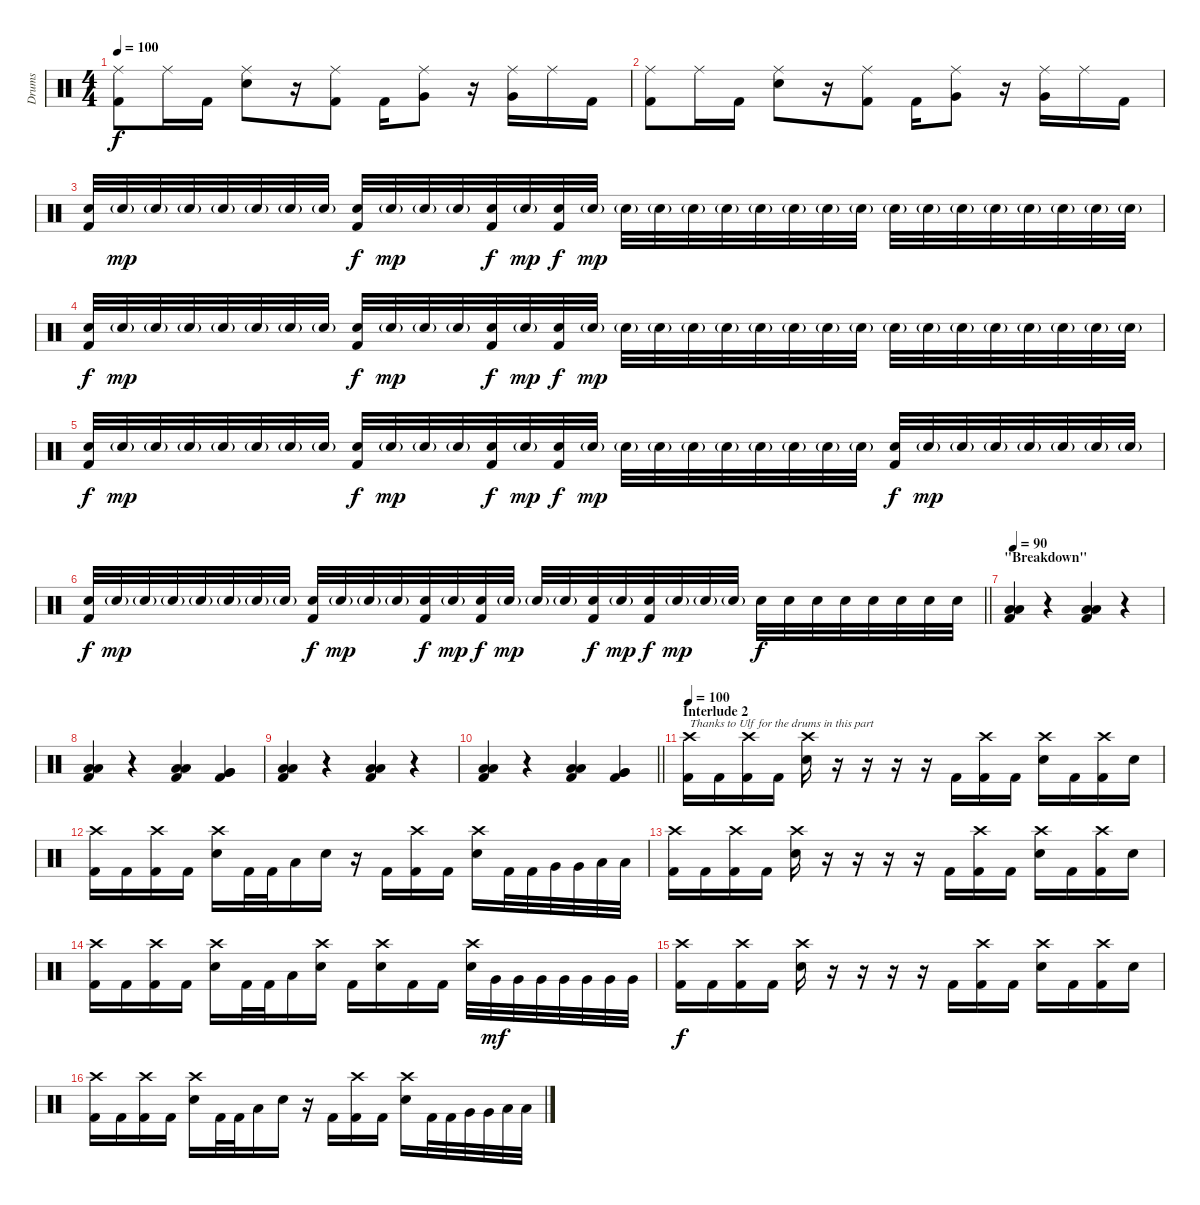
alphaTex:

\track ("Drums" "Drums") {instrument percussion}
\staff {score}
\articulation defaults
\ts (4 4)
\tempo 100
\clef neutral
\ks c
("Ride (middle)" "Kick (hit) 2").8{dy f} "Ride (middle)".16 "Kick (hit) 2".16 ("Ride (middle)" "Electric Snare (hit)").8 r.16 ("Ride (middle)" "Kick (hit) 2").8 "Kick (hit) 2".16 ("Ride (middle)" "Very Low Tom (hit)").8 r.16 ("Ride (middle)" "Very Low Tom (hit)").16 "Ride (middle)".16 "Kick (hit) 2".16 |
("Ride (middle)" "Kick (hit) 2").8 "Ride (middle)".16 "Kick (hit) 2".16 ("Ride (middle)" "Electric Snare (hit)").8 r.16 ("Ride (middle)" "Kick (hit) 2").8 "Kick (hit) 2".16 ("Ride (middle)" "Very Low Tom (hit)").8 r.16 ("Ride (middle)" "Very Low Tom (hit)").16 "Ride (middle)".16 "Kick (hit) 2".16 |
("Electric Snare (hit)" "Kick (hit) 2").32 "Electric Snare (hit)"{g}.32{dy mp} "Electric Snare (hit)"{g}.32 "Electric Snare (hit)"{g}.32 "Electric Snare (hit)"{g}.32 "Electric Snare (hit)"{g}.32 "Electric Snare (hit)"{g}.32 "Electric Snare (hit)"{g}.32 ("Electric Snare (hit)" "Kick (hit) 2").32{dy f} "Electric Snare (hit)"{g}.32{dy mp} "Electric Snare (hit)"{g}.32 "Electric Snare (hit)"{g}.32 ("Electric Snare (hit)" "Kick (hit) 2").32{dy f} "Electric Snare (hit)"{g}.32{dy mp} ("Electric Snare (hit)" "Kick (hit) 2").32{dy f} "Electric Snare (hit)"{g}.32{dy mp} "Electric Snare (hit)"{g}.32 "Electric Snare (hit)"{g}.32 "Electric Snare (hit)"{g}.32 "Electric Snare (hit)"{g}.32 "Electric Snare (hit)"{g}.32 "Electric Snare (hit)"{g}.32 "Electric Snare (hit)"{g}.32 "Electric Snare (hit)"{g}.32 "Electric Snare (hit)"{g}.32 "Electric Snare (hit)"{g}.32 "Electric Snare (hit)"{g}.32 "Electric Snare (hit)"{g}.32 "Electric Snare (hit)"{g}.32 "Electric Snare (hit)"{g}.32 "Electric Snare (hit)"{g}.32 "Electric Snare (hit)"{g}.32 |
("Electric Snare (hit)" "Kick (hit) 2").32{dy f} "Electric Snare (hit)"{g}.32{dy mp} "Electric Snare (hit)"{g}.32 "Electric Snare (hit)"{g}.32 "Electric Snare (hit)"{g}.32 "Electric Snare (hit)"{g}.32 "Electric Snare (hit)"{g}.32 "Electric Snare (hit)"{g}.32 ("Electric Snare (hit)" "Kick (hit) 2").32{dy f} "Electric Snare (hit)"{g}.32{dy mp} "Electric Snare (hit)"{g}.32 "Electric Snare (hit)"{g}.32 ("Electric Snare (hit)" "Kick (hit) 2").32{dy f} "Electric Snare (hit)"{g}.32{dy mp} ("Electric Snare (hit)" "Kick (hit) 2").32{dy f} "Electric Snare (hit)"{g}.32{dy mp} "Electric Snare (hit)"{g}.32 "Electric Snare (hit)"{g}.32 "Electric Snare (hit)"{g}.32 "Electric Snare (hit)"{g}.32 "Electric Snare (hit)"{g}.32 "Electric Snare (hit)"{g}.32 "Electric Snare (hit)"{g}.32 "Electric Snare (hit)"{g}.32 "Electric Snare (hit)"{g}.32 "Electric Snare (hit)"{g}.32 "Electric Snare (hit)"{g}.32 "Electric Snare (hit)"{g}.32 "Electric Snare (hit)"{g}.32 "Electric Snare (hit)"{g}.32 "Electric Snare (hit)"{g}.32 "Electric Snare (hit)"{g}.32 |
("Electric Snare (hit)" "Kick (hit) 2").32{dy f} "Electric Snare (hit)"{g}.32{dy mp} "Electric Snare (hit)"{g}.32 "Electric Snare (hit)"{g}.32 "Electric Snare (hit)"{g}.32 "Electric Snare (hit)"{g}.32 "Electric Snare (hit)"{g}.32 "Electric Snare (hit)"{g}.32 ("Electric Snare (hit)" "Kick (hit) 2").32{dy f} "Electric Snare (hit)"{g}.32{dy mp} "Electric Snare (hit)"{g}.32 "Electric Snare (hit)"{g}.32 ("Electric Snare (hit)" "Kick (hit) 2").32{dy f} "Electric Snare (hit)"{g}.32{dy mp} ("Electric Snare (hit)" "Kick (hit) 2").32{dy f} "Electric Snare (hit)"{g}.32{dy mp} "Electric Snare (hit)"{g}.32 "Electric Snare (hit)"{g}.32 "Electric Snare (hit)"{g}.32 "Electric Snare (hit)"{g}.32 "Electric Snare (hit)"{g}.32 "Electric Snare (hit)"{g}.32 "Electric Snare (hit)"{g}.32 "Electric Snare (hit)"{g}.32 ("Electric Snare (hit)" "Kick (hit) 2").32{dy f} "Electric Snare (hit)"{g}.32{dy mp} "Electric Snare (hit)"{g}.32 "Electric Snare (hit)"{g}.32 "Electric Snare (hit)"{g}.32 "Electric Snare (hit)"{g}.32 "Electric Snare (hit)"{g}.32 "Electric Snare (hit)"{g}.32 |
\barLineRight lightlight
("Electric Snare (hit)" "Kick (hit) 2").32{dy f} "Electric Snare (hit)"{g}.32{dy mp} "Electric Snare (hit)"{g}.32 "Electric Snare (hit)"{g}.32 "Electric Snare (hit)"{g}.32 "Electric Snare (hit)"{g}.32 "Electric Snare (hit)"{g}.32 "Electric Snare (hit)"{g}.32 ("Electric Snare (hit)" "Kick (hit) 2").32{dy f} "Electric Snare (hit)"{g}.32{dy mp} "Electric Snare (hit)"{g}.32 "Electric Snare (hit)"{g}.32 ("Electric Snare (hit)" "Kick (hit) 2").32{dy f} "Electric Snare (hit)"{g}.32{dy mp} ("Electric Snare (hit)" "Kick (hit) 2").32{dy f} "Electric Snare (hit)"{g}.32{dy mp} "Electric Snare (hit)"{g}.32 "Electric Snare (hit)"{g}.32 ("Electric Snare (hit)" "Kick (hit) 2").32{dy f} "Electric Snare (hit)"{g}.32{dy mp} ("Electric Snare (hit)" "Kick (hit) 2").32{dy f} "Electric Snare (hit)"{g}.32{dy mp} "Electric Snare (hit)"{g}.32 "Electric Snare (hit)"{g}.32 "Electric Snare (hit)".32{dy f} "Electric Snare (hit)".32 "Electric Snare (hit)".32 "Electric Snare (hit)".32 "Electric Snare (hit)".32 "Electric Snare (hit)".32 "Electric Snare (hit)".32 "Electric Snare (hit)".32 |
\section ("" "\"Breakdown\"")
\tempo 90
("Low Floor Tom (hit)" "Low Floor Tom (hit)" "Kick (hit) 2").4 r.4 ("Low Floor Tom (hit)" "Low Floor Tom (hit)" "Kick (hit) 2").4 r.4 |
("Low Floor Tom (hit)" "Low Floor Tom (hit)" "Kick (hit) 2").4 r.4 ("Low Floor Tom (hit)" "Low Floor Tom (hit)" "Kick (hit) 2").4 ("Very Low Tom (hit)" "Very Low Tom (hit)" "Kick (hit) 2").4 |
("Low Floor Tom (hit)" "Low Floor Tom (hit)" "Kick (hit) 2").4 r.4 ("Low Floor Tom (hit)" "Low Floor Tom (hit)" "Kick (hit) 2").4 r.4 |
\barLineRight lightlight
("Low Floor Tom (hit)" "Low Floor Tom (hit)" "Kick (hit) 2").4 r.4 ("Low Floor Tom (hit)" "Low Floor Tom (hit)" "Kick (hit) 2").4 ("Very Low Tom (hit)" "Very Low Tom (hit)" "Kick (hit) 2").4 |
\section ("" "Interlude 2")
\tempo 100
("Crash high (hit)" "Kick (hit) 2").16{txt "Thanks to Ulf for the drums in this part"} "Kick (hit) 2".16 ("Crash high (hit)" "Kick (hit) 2").16 "Kick (hit) 2".16 ("Crash high (hit)" "Electric Snare (hit)").16 r.16 r.16 r.16 r.16 "Kick (hit) 2".16 ("Crash high (hit)" "Kick (hit) 2").16 "Kick (hit) 2".16 ("Crash high (hit)" "Electric Snare (hit)").16 "Kick (hit) 2".16 ("Crash high (hit)" "Kick (hit) 2").16 "Electric Snare (hit)".16 |
("Crash high (hit)" "Kick (hit) 2").16 "Kick (hit) 2".16 ("Crash high (hit)" "Kick (hit) 2").16 "Kick (hit) 2".16 ("Crash high (hit)" "Electric Snare (hit)").16 "Kick (hit) 2".32 "Kick (hit) 2".32 "Low Floor Tom (hit)".16 "Electric Snare (hit)".16 r.16 "Kick (hit) 2".16 ("Crash high (hit)" "Kick (hit) 2").16 "Kick (hit) 2".16 ("Crash high (hit)" "Electric Snare (hit)").16 "Kick (hit) 2".32 "Kick (hit) 2".32 "Very Low Tom (hit)".32 "Very Low Tom (hit)".32 "Low Floor Tom (hit)".32 "Low Floor Tom (hit)".32 |
("Crash high (hit)" "Kick (hit) 2").16 "Kick (hit) 2".16 ("Crash high (hit)" "Kick (hit) 2").16 "Kick (hit) 2".16 ("Crash high (hit)" "Electric Snare (hit)").16 r.16 r.16 r.16 r.16 "Kick (hit) 2".16 ("Crash high (hit)" "Kick (hit) 2").16 "Kick (hit) 2".16 ("Crash high (hit)" "Electric Snare (hit)").16 "Kick (hit) 2".16 ("Crash high (hit)" "Kick (hit) 2").16 "Electric Snare (hit)".16 |
("Crash high (hit)" "Kick (hit) 2").16 "Kick (hit) 2".16 ("Crash high (hit)" "Kick (hit) 2").16 "Kick (hit) 2".16 ("Crash high (hit)" "Electric Snare (hit)").16 "Kick (hit) 2".32 "Kick (hit) 2".32 "Low Floor Tom (hit)".16 ("Crash high (hit)" "Electric Snare (hit)").16 "Kick (hit) 2".16 ("Crash high (hit)" "Electric Snare (hit)").16 "Kick (hit) 2".16 "Kick (hit) 2".16 ("Crash high (hit)" "Electric Snare (hit)").32 "Very Low Tom (hit)".32{dy mf} "Very Low Tom (hit)".32 "Very Low Tom (hit)".32 "Very Low Tom (hit)".32 "Very Low Tom (hit)".32 "Very Low Tom (hit)".32 "Very Low Tom (hit)".32 |
("Crash high (hit)" "Kick (hit) 2").16{dy f} "Kick (hit) 2".16 ("Crash high (hit)" "Kick (hit) 2").16 "Kick (hit) 2".16 ("Crash high (hit)" "Electric Snare (hit)").16 r.16 r.16 r.16 r.16 "Kick (hit) 2".16 ("Crash high (hit)" "Kick (hit) 2").16 "Kick (hit) 2".16 ("Crash high (hit)" "Electric Snare (hit)").16 "Kick (hit) 2".16 ("Crash high (hit)" "Kick (hit) 2").16 "Electric Snare (hit)".16 |
("Crash high (hit)" "Kick (hit) 2").16 "Kick (hit) 2".16 ("Crash high (hit)" "Kick (hit) 2").16 "Kick (hit) 2".16 ("Crash high (hit)" "Electric Snare (hit)").16 "Kick (hit) 2".32 "Kick (hit) 2".32 "Low Floor Tom (hit)".16 "Electric Snare (hit)".16 r.16 "Kick (hit) 2".16 ("Crash high (hit)" "Kick (hit) 2").16 "Kick (hit) 2".16 ("Crash high (hit)" "Electric Snare (hit)").16 "Kick (hit) 2".32 "Kick (hit) 2".32 "Very Low Tom (hit)".32 "Very Low Tom (hit)".32 "Low Floor Tom (hit)".32 "Low Floor Tom (hit)".32
